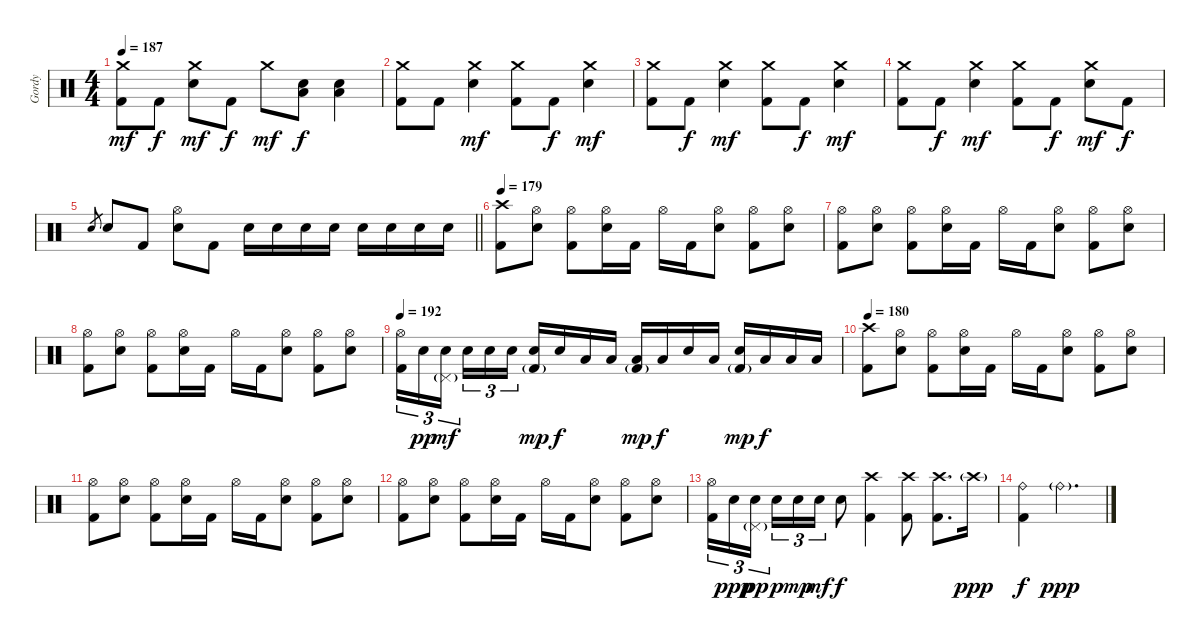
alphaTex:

\track ("Gordy" "Gordy") {instrument percussion}
\staff {score}
\articulation defaults
\ts (4 4)
\tempo 187
\clef neutral
\ks c
("Crash medium (hit)" "Kick (hit) 2").8{dy mf} "Kick (hit) 2".8{dy f} ("Crash medium (hit)" "Electric Snare (hit)").8{dy mf} "Kick (hit) 2".8{dy f} "Crash medium (hit)".8{dy mf} ("Electric Snare (hit)" "Low Floor Tom (hit)").8{dy f} ("Electric Snare (hit)" "Low Floor Tom (hit)").4 |
("Crash medium (hit)" "Kick (hit) 2").8 "Kick (hit) 2".8 ("Crash medium (hit)" "Electric Snare (hit)").4{dy mf} ("Crash medium (hit)" "Kick (hit) 2").8 "Kick (hit) 2".8{dy f} ("Crash medium (hit)" "Electric Snare (hit)").4{dy mf} |
("Crash medium (hit)" "Kick (hit) 2").8 "Kick (hit) 2".8{dy f} ("Crash medium (hit)" "Electric Snare (hit)").4{dy mf} ("Crash medium (hit)" "Kick (hit) 2").8 "Kick (hit) 2".8{dy f} ("Crash medium (hit)" "Electric Snare (hit)").4{dy mf} |
("Crash medium (hit)" "Kick (hit) 2").8 "Kick (hit) 2".8{dy f} ("Crash medium (hit)" "Electric Snare (hit)").4{dy mf} ("Crash medium (hit)" "Kick (hit) 2").8 "Kick (hit) 2".8{dy f} ("Crash medium (hit)" "Electric Snare (hit)").8{dy mf} "Kick (hit) 2".8{dy f} |
\barLineRight lightlight "Electric Snare (hit)".8{gr} "Electric Snare (hit)".8 "Kick (hit) 2".8
("Hi-Hat (open)" "Electric Snare (hit)").8 "Kick (hit) 2".8 "Electric Snare (hit)".16 "Electric Snare (hit)".16 "Electric Snare (hit)".16 "Electric Snare (hit)".16 "Electric Snare (hit)".16 "Electric Snare (hit)".16 "Electric Snare (hit)".16 "Electric Snare (hit)".16 |
\section ("" "")
\tempo 179
("Crash high (hit)" "Kick (hit) 2").8 ("Hi-Hat (open)" "Electric Snare (hit)").8 ("Hi-Hat (open)" "Kick (hit) 2").8 ("Hi-Hat (open)" "Electric Snare (hit)").16 "Kick (hit) 2".16 "Hi-Hat (open)".16 "Kick (hit) 2".16 ("Hi-Hat (open)" "Electric Snare (hit)").8 ("Hi-Hat (open)" "Kick (hit) 2").8 ("Hi-Hat (open)" "Electric Snare (hit)").8 |
("Hi-Hat (open)" "Kick (hit) 2").8 ("Hi-Hat (open)" "Electric Snare (hit)").8 ("Hi-Hat (open)" "Kick (hit) 2").8 ("Hi-Hat (open)" "Electric Snare (hit)").16 "Kick (hit) 2".16 "Hi-Hat (open)".16 "Kick (hit) 2".16 ("Hi-Hat (open)" "Electric Snare (hit)").8 ("Hi-Hat (open)" "Kick (hit) 2").8 ("Hi-Hat (open)" "Electric Snare (hit)").8 |
("Hi-Hat (open)" "Kick (hit) 2").8 ("Hi-Hat (open)" "Electric Snare (hit)").8 ("Hi-Hat (open)" "Kick (hit) 2").8 ("Hi-Hat (open)" "Electric Snare (hit)").16 "Kick (hit) 2".16 "Hi-Hat (open)".16 "Kick (hit) 2".16 ("Hi-Hat (open)" "Electric Snare (hit)").8 ("Hi-Hat (open)" "Kick (hit) 2").8 ("Hi-Hat (open)" "Electric Snare (hit)").8 |
\tempo 192
("Hi-Hat (open)" "Kick (hit) 2").16{tu (3 2)} "Electric Snare (hit)".16{tu (3 2) dy pp} ("Pedal Hi-Hat (hit)"{g} "Electric Snare (hit)").16{tu (3 2) dy mf beam splitsecondary} "Electric Snare (hit)".16{tu (3 2)} "Electric Snare (hit)".16{tu (3 2)} "Electric Snare (hit)".16{tu (3 2)} ("Electric Snare (hit)" "Kick (hit) 2"{g}).16{dy mp} "Electric Snare (hit)".16{dy f} "Low Tom (hit)".16 "Low Tom (hit)".16 ("Low Tom (hit)" "Kick (hit) 2"{g}).16{dy mp} "Low Tom (hit)".16{dy f} "Electric Snare (hit)".16 "Low Tom (hit)".16 ("Electric Snare (hit)" "Kick (hit) 2"{g}).16{dy mp} "Low Tom (hit)".16{dy f} "Low Floor Tom (hit)".16 "Low Floor Tom (hit)".16 |
\tempo 180
("Crash high (hit)" "Kick (hit) 2").8 ("Hi-Hat (open)" "Electric Snare (hit)").8 ("Hi-Hat (open)" "Kick (hit) 2").8 ("Hi-Hat (open)" "Electric Snare (hit)").16 "Kick (hit) 2".16 "Hi-Hat (open)".16 "Kick (hit) 2".16 ("Hi-Hat (open)" "Electric Snare (hit)").8 ("Hi-Hat (open)" "Kick (hit) 2").8 ("Hi-Hat (open)" "Electric Snare (hit)").8 |
("Hi-Hat (open)" "Kick (hit) 2").8 ("Hi-Hat (open)" "Electric Snare (hit)").8 ("Hi-Hat (open)" "Kick (hit) 2").8 ("Hi-Hat (open)" "Electric Snare (hit)").16 "Kick (hit) 2".16 "Hi-Hat (open)".16 "Kick (hit) 2".16 ("Hi-Hat (open)" "Electric Snare (hit)").8 ("Hi-Hat (open)" "Kick (hit) 2").8 ("Hi-Hat (open)" "Electric Snare (hit)").8 |
("Hi-Hat (open)" "Kick (hit) 2").8 ("Hi-Hat (open)" "Electric Snare (hit)").8 ("Hi-Hat (open)" "Kick (hit) 2").8 ("Hi-Hat (open)" "Electric Snare (hit)").16 "Kick (hit) 2".16 "Hi-Hat (open)".16 "Kick (hit) 2".16 ("Hi-Hat (open)" "Electric Snare (hit)").8 ("Hi-Hat (open)" "Kick (hit) 2").8 ("Hi-Hat (open)" "Electric Snare (hit)").8 |
("Hi-Hat (open)" "Kick (hit) 2").16{tu (3 2)} "Electric Snare (hit)".16{tu (3 2) dy ppp} ("Pedal Hi-Hat (hit)"{g} "Electric Snare (hit)").16{tu (3 2) dy pp beam splitsecondary} "Electric Snare (hit)".16{tu (3 2) dy p} "Electric Snare (hit)".16{tu (3 2) dy mp} "Electric Snare (hit)".16{tu (3 2) dy mf} "Electric Snare (hit)".8{dy f} ("Crash high (hit)" "Kick (hit) 2").4 ("Crash high (hit)" "Kick (hit) 2").8 ("Crash high (hit)" "Kick (hit) 2").8{d} "Crash high (hit)"{g}.16{dy ppp} |
("Ride (bell)" "Kick (hit) 2").4{dy f} "Ride (bell)"{g}.2{d dy ppp}
